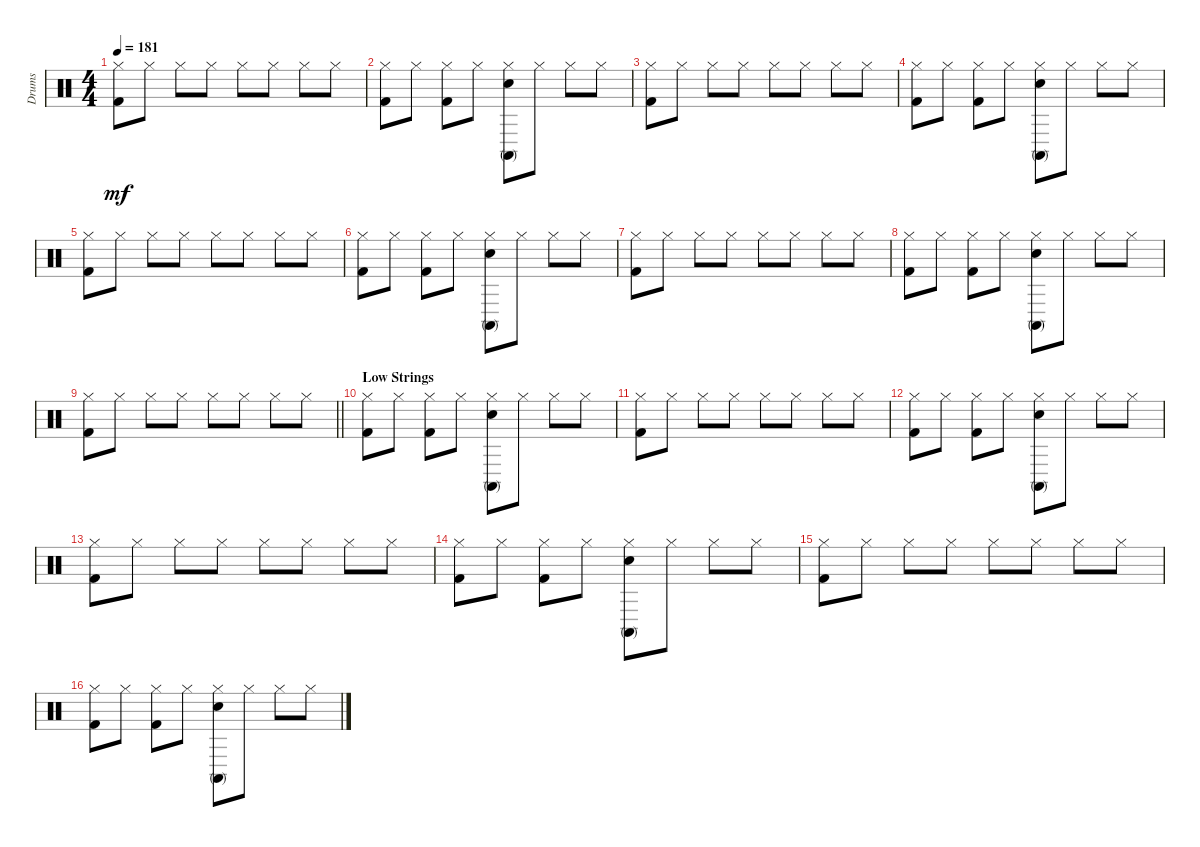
\track ("Drums" "Drums") {instrument percussion}
\staff {score}
\articulation defaults
\ts (4 4)
\tempo 181
\clef neutral
\ks c
("Hi-Hat (closed)" "Kick (hit) 2").8{dy mf} "Hi-Hat (closed)".8 "Hi-Hat (closed)".8 "Hi-Hat (closed)".8 "Hi-Hat (closed)".8 "Hi-Hat (closed)".8 "Hi-Hat (closed)".8 "Hi-Hat (closed)".8 |
("Hi-Hat (closed)" "Kick (hit) 2").8 "Hi-Hat (closed)".8 ("Hi-Hat (closed)" "Kick (hit) 2").8 "Hi-Hat (closed)".8 ("Hi-Hat (closed)" "Conga high (mute)" "Electric Snare (hit)").8 "Hi-Hat (closed)".8 "Hi-Hat (closed)".8 "Hi-Hat (closed)".8 |
("Hi-Hat (closed)" "Kick (hit) 2").8 "Hi-Hat (closed)".8 "Hi-Hat (closed)".8 "Hi-Hat (closed)".8 "Hi-Hat (closed)".8 "Hi-Hat (closed)".8 "Hi-Hat (closed)".8 "Hi-Hat (closed)".8 |
("Hi-Hat (closed)" "Kick (hit) 2").8 "Hi-Hat (closed)".8 ("Hi-Hat (closed)" "Kick (hit) 2").8 "Hi-Hat (closed)".8 ("Hi-Hat (closed)" "Conga high (mute)" "Electric Snare (hit)").8 "Hi-Hat (closed)".8 "Hi-Hat (closed)".8 "Hi-Hat (closed)".8 |
("Hi-Hat (closed)" "Kick (hit) 2").8 "Hi-Hat (closed)".8 "Hi-Hat (closed)".8 "Hi-Hat (closed)".8 "Hi-Hat (closed)".8 "Hi-Hat (closed)".8 "Hi-Hat (closed)".8 "Hi-Hat (closed)".8 |
("Hi-Hat (closed)" "Kick (hit) 2").8 "Hi-Hat (closed)".8 ("Hi-Hat (closed)" "Kick (hit) 2").8 "Hi-Hat (closed)".8 ("Hi-Hat (closed)" "Conga high (mute)" "Electric Snare (hit)").8 "Hi-Hat (closed)".8 "Hi-Hat (closed)".8 "Hi-Hat (closed)".8 |
("Hi-Hat (closed)" "Kick (hit) 2").8 "Hi-Hat (closed)".8 "Hi-Hat (closed)".8 "Hi-Hat (closed)".8 "Hi-Hat (closed)".8 "Hi-Hat (closed)".8 "Hi-Hat (closed)".8 "Hi-Hat (closed)".8 |
("Hi-Hat (closed)" "Kick (hit) 2").8 "Hi-Hat (closed)".8 ("Hi-Hat (closed)" "Kick (hit) 2").8 "Hi-Hat (closed)".8 ("Hi-Hat (closed)" "Conga high (mute)" "Electric Snare (hit)").8 "Hi-Hat (closed)".8 "Hi-Hat (closed)".8 "Hi-Hat (closed)".8 |
\barLineRight lightlight
("Hi-Hat (closed)" "Kick (hit) 2").8 "Hi-Hat (closed)".8 "Hi-Hat (closed)".8 "Hi-Hat (closed)".8 "Hi-Hat (closed)".8 "Hi-Hat (closed)".8 "Hi-Hat (closed)".8 "Hi-Hat (closed)".8 |
\section ("" "Low Strings")
("Hi-Hat (closed)" "Kick (hit) 2").8 "Hi-Hat (closed)".8 ("Hi-Hat (closed)" "Kick (hit) 2").8 "Hi-Hat (closed)".8 ("Hi-Hat (closed)" "Conga high (mute)" "Electric Snare (hit)").8 "Hi-Hat (closed)".8 "Hi-Hat (closed)".8 "Hi-Hat (closed)".8 |
("Hi-Hat (closed)" "Kick (hit) 2").8 "Hi-Hat (closed)".8 "Hi-Hat (closed)".8 "Hi-Hat (closed)".8 "Hi-Hat (closed)".8 "Hi-Hat (closed)".8 "Hi-Hat (closed)".8 "Hi-Hat (closed)".8 |
("Hi-Hat (closed)" "Kick (hit) 2").8 "Hi-Hat (closed)".8 ("Hi-Hat (closed)" "Kick (hit) 2").8 "Hi-Hat (closed)".8 ("Hi-Hat (closed)" "Conga high (mute)" "Electric Snare (hit)").8 "Hi-Hat (closed)".8 "Hi-Hat (closed)".8 "Hi-Hat (closed)".8 |
("Hi-Hat (closed)" "Kick (hit) 2").8 "Hi-Hat (closed)".8 "Hi-Hat (closed)".8 "Hi-Hat (closed)".8 "Hi-Hat (closed)".8 "Hi-Hat (closed)".8 "Hi-Hat (closed)".8 "Hi-Hat (closed)".8 |
("Hi-Hat (closed)" "Kick (hit) 2").8 "Hi-Hat (closed)".8 ("Hi-Hat (closed)" "Kick (hit) 2").8 "Hi-Hat (closed)".8 ("Hi-Hat (closed)" "Conga high (mute)" "Electric Snare (hit)").8 "Hi-Hat (closed)".8 "Hi-Hat (closed)".8 "Hi-Hat (closed)".8 |
("Hi-Hat (closed)" "Kick (hit) 2").8 "Hi-Hat (closed)".8 "Hi-Hat (closed)".8 "Hi-Hat (closed)".8 "Hi-Hat (closed)".8 "Hi-Hat (closed)".8 "Hi-Hat (closed)".8 "Hi-Hat (closed)".8 |
("Hi-Hat (closed)" "Kick (hit) 2").8 "Hi-Hat (closed)".8 ("Hi-Hat (closed)" "Kick (hit) 2").8 "Hi-Hat (closed)".8 ("Hi-Hat (closed)" "Conga high (mute)" "Electric Snare (hit)").8 "Hi-Hat (closed)".8 "Hi-Hat (closed)".8 "Hi-Hat (closed)".8
